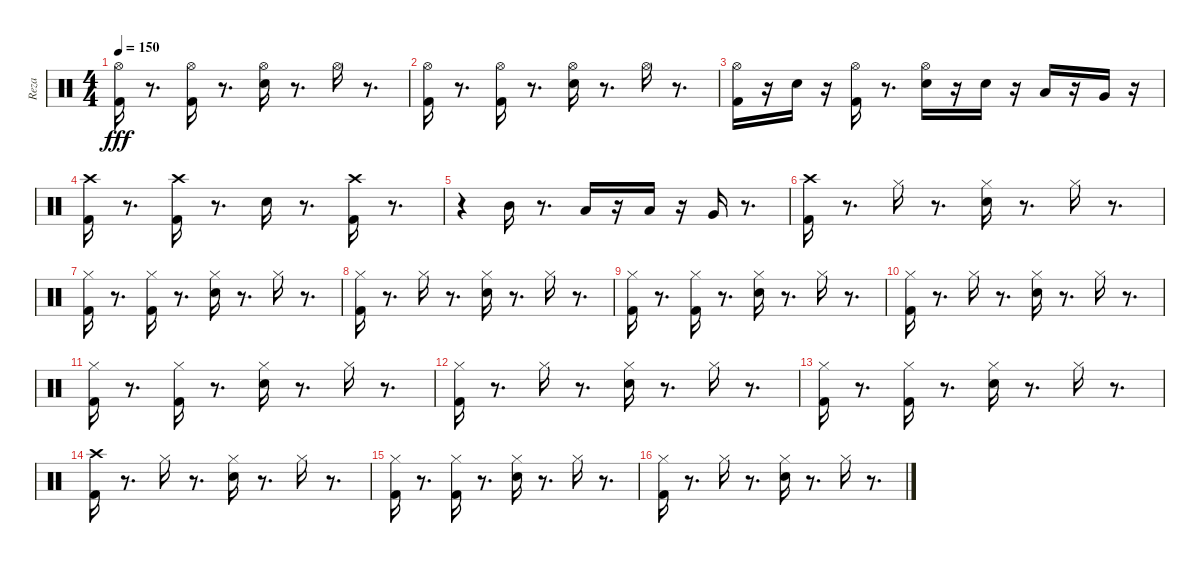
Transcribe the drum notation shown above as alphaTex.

\track ("Reza" "Reza") {instrument percussion}
\staff {score}
\articulation defaults
\ts (4 4)
\tempo 150
\clef neutral
\ks c
("Hi-Hat (open)" "Kick (hit) 2").16{dy fff} r.8{d} ("Kick (hit) 2" "Hi-Hat (open)").16 r.8{d} ("Snare (hit) 2" "Hi-Hat (open)").16 r.8{d} "Hi-Hat (open)".16 r.8{d} |
("Hi-Hat (open)" "Kick (hit) 2").16 r.8{d} ("Hi-Hat (open)" "Kick (hit) 2").16 r.8{d} ("Snare (hit) 2" "Hi-Hat (open)").16 r.8{d} "Hi-Hat (open)".16 r.8{d} |
("Kick (hit) 2" "Hi-Hat (open)").16 r.16 "Snare (hit) 2".16 r.16 ("Kick (hit) 2" "Hi-Hat (open)").16 r.8{d} ("Snare (hit) 2" "Hi-Hat (open)").16 r.16 "Snare (hit) 2".16 r.16 "Low Tom (hit)".16 r.16 "Very Low Tom (hit)".16 r.16 |
("Crash high (hit)" "Kick (hit) 2").16 r.8{d} ("Kick (hit) 2" "Crash high (hit)").16 r.8{d} "Snare (hit) 2".16 r.8{d} ("Kick (hit) 2" "Crash high (hit)").16 r.8{d} |
r.4 "Mid Tom (hit)".16 r.8{d} "Low Tom (hit)".16 r.16 "Low Tom (hit)".16 r.16 "Very Low Tom (hit)".16 r.8{d} |
("Kick (hit) 2" "Crash high (hit)").16 r.8{d} "Hi-Hat (closed)".16 r.8{d} ("Snare (hit) 2" "Hi-Hat (closed)").16 r.8{d} "Hi-Hat (closed)".16 r.8{d} |
("Hi-Hat (closed)" "Kick (hit) 2").16 r.8{d} ("Kick (hit) 2" "Hi-Hat (closed)").16 r.8{d} ("Hi-Hat (closed)" "Snare (hit) 2").16 r.8{d} "Hi-Hat (closed)".16 r.8{d} |
("Hi-Hat (closed)" "Kick (hit) 2").16 r.8{d} "Hi-Hat (closed)".16 r.8{d} ("Hi-Hat (closed)" "Snare (hit) 2").16 r.8{d} "Hi-Hat (closed)".16 r.8{d} |
("Kick (hit) 2" "Hi-Hat (closed)").16 r.8{d} ("Hi-Hat (closed)" "Kick (hit) 2").16 r.8{d} ("Snare (hit) 2" "Hi-Hat (closed)").16 r.8{d} "Hi-Hat (closed)".16 r.8{d} |
("Kick (hit) 2" "Hi-Hat (closed)").16 r.8{d} "Hi-Hat (closed)".16 r.8{d} ("Hi-Hat (closed)" "Snare (hit) 2").16 r.8{d} "Hi-Hat (closed)".16 r.8{d} |
("Kick (hit) 2" "Hi-Hat (closed)").16 r.8{d} ("Kick (hit) 2" "Hi-Hat (closed)").16 r.8{d} ("Hi-Hat (closed)" "Snare (hit) 2").16 r.8{d} "Hi-Hat (closed)".16 r.8{d} |
("Hi-Hat (closed)" "Kick (hit) 2").16 r.8{d} "Hi-Hat (closed)".16 r.8{d} ("Hi-Hat (closed)" "Snare (hit) 2").16 r.8{d} "Hi-Hat (closed)".16 r.8{d} |
("Kick (hit) 2" "Hi-Hat (closed)").16 r.8{d} ("Kick (hit) 2" "Hi-Hat (closed)").16 r.8{d} ("Snare (hit) 2" "Hi-Hat (closed)").16 r.8{d} "Hi-Hat (closed)".16 r.8{d} |
("Crash high (hit)" "Kick (hit) 2").16 r.8{d} "Hi-Hat (closed)".16 r.8{d} ("Snare (hit) 2" "Hi-Hat (closed)").16 r.8{d} "Hi-Hat (closed)".16 r.8{d} |
("Hi-Hat (closed)" "Kick (hit) 2").16 r.8{d} ("Hi-Hat (closed)" "Kick (hit) 2").16 r.8{d} ("Snare (hit) 2" "Hi-Hat (closed)").16 r.8{d} "Hi-Hat (closed)".16 r.8{d} |
("Kick (hit) 2" "Hi-Hat (closed)").16 r.8{d} "Hi-Hat (closed)".16 r.8{d} ("Snare (hit) 2" "Hi-Hat (closed)").16 r.8{d} "Hi-Hat (closed)".16 r.8{d}
